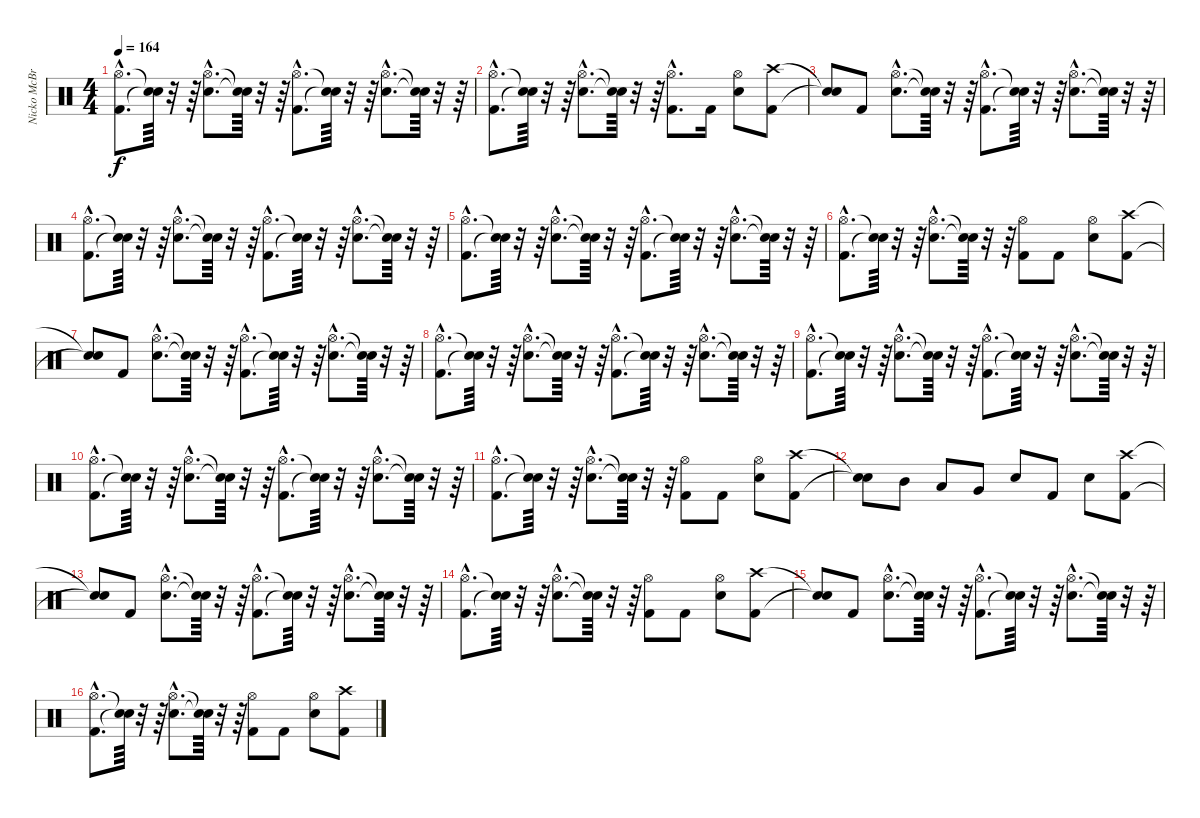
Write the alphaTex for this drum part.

\track ("Nicko McBrian (Drums)" "Nicko McBr") {instrument percussion}
\staff {score}
\articulation defaults
\ts (4 4)
\tempo 164
\clef neutral
\ks c
("Kick (hit) 2"{hac} "Hi-Hat (open)"{hac}).8{d dy f} ("Snare (hit)"{t} "Snare (hit)"{t}).64 r.32 r.64 ("Snare (hit) 2"{hac} "Hi-Hat (open)"{hac}).8{d} ("Snare (hit)"{t} "Snare (hit)"{t}).64 r.32 r.64 ("Kick (hit) 2"{hac} "Hi-Hat (open)"{hac}).8{d} ("Snare (hit)"{t} "Snare (hit)"{t}).64 r.32 r.64 ("Snare (hit) 2"{hac} "Hi-Hat (open)"{hac}).8{d} ("Snare (hit)"{t} "Snare (hit)"{t}).64 r.32 r.64 |
("Kick (hit) 2"{hac} "Hi-Hat (open)"{hac}).8{d} ("Snare (hit)"{t} "Snare (hit)"{t}).64 r.32 r.64 ("Snare (hit) 2"{hac} "Hi-Hat (open)"{hac}).8{d} ("Snare (hit)"{t} "Snare (hit)"{t}).64 r.32 r.64 ("Kick (hit) 2"{hac} "Hi-Hat (open)"{hac}).8{d} "Kick (hit) 2".16 ("Snare (hit) 2" "Hi-Hat (open)").8 ("Kick (hit) 2" "Crash high (hit)").8 |
("Snare (hit)"{t} "Snare (hit)"{t}).8 "Kick (hit) 2".8 ("Snare (hit) 2"{hac} "Hi-Hat (open)"{hac}).8{d} ("Snare (hit)"{t} "Snare (hit)"{t}).64 r.32 r.64 ("Kick (hit) 2"{hac} "Hi-Hat (open)"{hac}).8{d} ("Snare (hit)"{t} "Snare (hit)"{t}).64 r.32 r.64 ("Snare (hit) 2"{hac} "Hi-Hat (open)"{hac}).8{d} ("Snare (hit)"{t} "Snare (hit)"{t}).64 r.32 r.64 |
("Kick (hit) 2"{hac} "Hi-Hat (open)"{hac}).8{d} ("Snare (hit)"{t} "Snare (hit)"{t}).64 r.32 r.64 ("Snare (hit) 2"{hac} "Hi-Hat (open)"{hac}).8{d} ("Snare (hit)"{t} "Snare (hit)"{t}).64 r.32 r.64 ("Kick (hit) 2"{hac} "Hi-Hat (open)"{hac}).8{d} ("Snare (hit)"{t} "Snare (hit)"{t}).64 r.32 r.64 ("Snare (hit) 2"{hac} "Hi-Hat (open)"{hac}).8{d} ("Snare (hit)"{t} "Snare (hit)"{t}).64 r.32 r.64 |
("Kick (hit) 2"{hac} "Hi-Hat (open)"{hac}).8{d} ("Snare (hit)"{t} "Snare (hit)"{t}).64 r.32 r.64 ("Snare (hit) 2"{hac} "Hi-Hat (open)"{hac}).8{d} ("Snare (hit)"{t} "Snare (hit)"{t}).64 r.32 r.64 ("Kick (hit) 2"{hac} "Hi-Hat (open)"{hac}).8{d} ("Snare (hit)"{t} "Snare (hit)"{t}).64 r.32 r.64 ("Snare (hit) 2"{hac} "Hi-Hat (open)"{hac}).8{d} ("Snare (hit)"{t} "Snare (hit)"{t}).64 r.32 r.64 |
("Kick (hit) 2"{hac} "Hi-Hat (open)"{hac}).8{d} ("Snare (hit)"{t} "Snare (hit)"{t}).64 r.32 r.64 ("Snare (hit) 2"{hac} "Hi-Hat (open)"{hac}).8{d} ("Snare (hit)"{t} "Snare (hit)"{t}).64 r.32 r.64 ("Kick (hit) 2" "Hi-Hat (open)").8 "Kick (hit) 2".8 ("Snare (hit) 2" "Hi-Hat (open)").8 ("Kick (hit) 2" "Crash high (hit)").8 |
("Snare (hit)"{t} "Snare (hit)"{t}).8 "Kick (hit) 2".8 ("Snare (hit) 2"{hac} "Hi-Hat (open)"{hac}).8{d} ("Snare (hit)"{t} "Snare (hit)"{t}).64 r.32 r.64 ("Kick (hit) 2"{hac} "Hi-Hat (open)"{hac}).8{d} ("Snare (hit)"{t} "Snare (hit)"{t}).64 r.32 r.64 ("Snare (hit) 2"{hac} "Hi-Hat (open)"{hac}).8{d} ("Snare (hit)"{t} "Snare (hit)"{t}).64 r.32 r.64 |
("Kick (hit) 2"{hac} "Hi-Hat (open)"{hac}).8{d} ("Snare (hit)"{t} "Snare (hit)"{t}).64 r.32 r.64 ("Snare (hit) 2"{hac} "Hi-Hat (open)"{hac}).8{d} ("Snare (hit)"{t} "Snare (hit)"{t}).64 r.32 r.64 ("Kick (hit) 2"{hac} "Hi-Hat (open)"{hac}).8{d} ("Snare (hit)"{t} "Snare (hit)"{t}).64 r.32 r.64 ("Snare (hit) 2"{hac} "Hi-Hat (open)"{hac}).8{d} ("Snare (hit)"{t} "Snare (hit)"{t}).64 r.32 r.64 |
("Kick (hit) 2"{hac} "Hi-Hat (open)"{hac}).8{d} ("Snare (hit)"{t} "Snare (hit)"{t}).64 r.32 r.64 ("Snare (hit) 2"{hac} "Hi-Hat (open)"{hac}).8{d} ("Snare (hit)"{t} "Snare (hit)"{t}).64 r.32 r.64 ("Kick (hit) 2"{hac} "Hi-Hat (open)"{hac}).8{d} ("Snare (hit)"{t} "Snare (hit)"{t}).64 r.32 r.64 ("Snare (hit) 2"{hac} "Hi-Hat (open)"{hac}).8{d} ("Snare (hit)"{t} "Snare (hit)"{t}).64 r.32 r.64 |
("Kick (hit) 2"{hac} "Hi-Hat (open)"{hac}).8{d} ("Snare (hit)"{t} "Snare (hit)"{t}).64 r.32 r.64 ("Snare (hit) 2"{hac} "Hi-Hat (open)"{hac}).8{d} ("Snare (hit)"{t} "Snare (hit)"{t}).64 r.32 r.64 ("Kick (hit) 2"{hac} "Hi-Hat (open)"{hac}).8{d} ("Snare (hit)"{t} "Snare (hit)"{t}).64 r.32 r.64 ("Snare (hit) 2"{hac} "Hi-Hat (open)"{hac}).8{d} ("Snare (hit)"{t} "Snare (hit)"{t}).64 r.32 r.64 |
("Kick (hit) 2"{hac} "Hi-Hat (open)"{hac}).8{d} ("Snare (hit)"{t} "Snare (hit)"{t}).64 r.32 r.64 ("Snare (hit) 2"{hac} "Hi-Hat (open)"{hac}).8{d} ("Snare (hit)"{t} "Snare (hit)"{t}).64 r.32 r.64 ("Kick (hit) 2" "Hi-Hat (open)").8 "Kick (hit) 2".8 ("Snare (hit) 2" "Hi-Hat (open)").8 ("Kick (hit) 2" "Crash high (hit)").8 |
("Snare (hit)"{t} "Snare (hit)"{t}).8 "Mid Tom (hit)".8 "Low Tom (hit)".8 "Very Low Tom (hit)".8 "Snare (hit) 2".8 "Kick (hit) 2".8 "Snare (hit) 2".8 ("Kick (hit) 2" "Crash high (hit)").8 |
("Snare (hit)"{t} "Snare (hit)"{t}).8 "Kick (hit) 2".8 ("Snare (hit) 2"{hac} "Hi-Hat (open)"{hac}).8{d} ("Snare (hit)"{t} "Snare (hit)"{t}).64 r.32 r.64 ("Kick (hit) 2"{hac} "Hi-Hat (open)"{hac}).8{d} ("Snare (hit)"{t} "Snare (hit)"{t}).64 r.32 r.64 ("Snare (hit) 2"{hac} "Hi-Hat (open)"{hac}).8{d} ("Snare (hit)"{t} "Snare (hit)"{t}).64 r.32 r.64 |
("Kick (hit) 2"{hac} "Hi-Hat (open)"{hac}).8{d} ("Snare (hit)"{t} "Snare (hit)"{t}).64 r.32 r.64 ("Snare (hit) 2"{hac} "Hi-Hat (open)"{hac}).8{d} ("Snare (hit)"{t} "Snare (hit)"{t}).64 r.32 r.64 ("Kick (hit) 2" "Hi-Hat (open)").8 "Kick (hit) 2".8 ("Snare (hit) 2" "Hi-Hat (open)").8 ("Kick (hit) 2" "Crash high (hit)").8 |
("Snare (hit)"{t} "Snare (hit)"{t}).8 "Kick (hit) 2".8 ("Snare (hit) 2"{hac} "Hi-Hat (open)"{hac}).8{d} ("Snare (hit)"{t} "Snare (hit)"{t}).64 r.32 r.64 ("Kick (hit) 2"{hac} "Hi-Hat (open)"{hac}).8{d} ("Snare (hit)"{t} "Snare (hit)"{t}).64 r.32 r.64 ("Snare (hit) 2"{hac} "Hi-Hat (open)"{hac}).8{d} ("Snare (hit)"{t} "Snare (hit)"{t}).64 r.32 r.64 |
("Kick (hit) 2"{hac} "Hi-Hat (open)"{hac}).8{d} ("Snare (hit)"{t} "Snare (hit)"{t}).64 r.32 r.64 ("Snare (hit) 2"{hac} "Hi-Hat (open)"{hac}).8{d} ("Snare (hit)"{t} "Snare (hit)"{t}).64 r.32 r.64 ("Kick (hit) 2" "Hi-Hat (open)").8 "Kick (hit) 2".8 ("Snare (hit) 2" "Hi-Hat (open)").8 ("Kick (hit) 2" "Crash high (hit)").8
